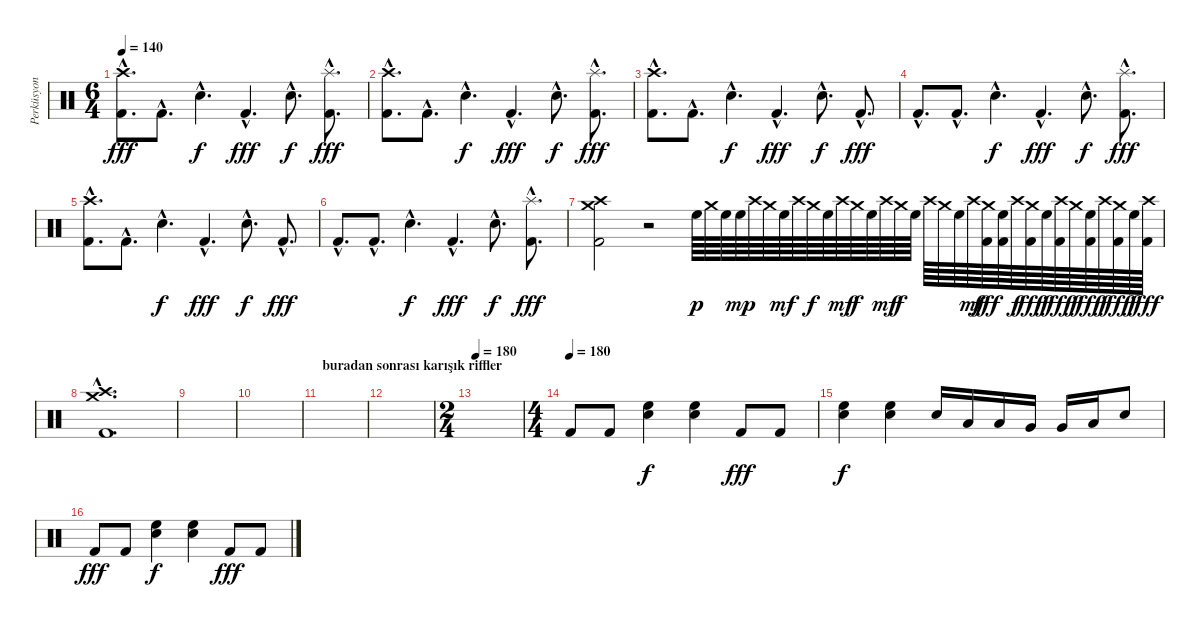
\track ("Perküsyon" "Perküsyon") {instrument percussion}
\staff {score}
\articulation defaults
\ts (6 4)
\tempo 140
\clef neutral
\ks c
("Crash high (hit)"{hac} "Kick (hit) 2"{hac}).8{d dy fff} "Kick (hit) 2"{hac}.8{d} "Snare (hit) 2"{hac}.4{d dy f} "Kick (hit) 2"{hac}.4{d dy fff} "Snare (hit) 2"{hac}.8{d dy f} ("Splash (hit)"{hac} "Kick (hit) 2"{hac}).8{d dy fff} |
("Crash high (hit)"{hac} "Kick (hit) 2"{hac}).8{d} "Kick (hit) 2"{hac}.8{d} "Snare (hit) 2"{hac}.4{d dy f} "Kick (hit) 2"{hac}.4{d dy fff} "Snare (hit) 2"{hac}.8{d dy f} ("Splash (hit)"{hac} "Kick (hit) 2"{hac}).8{d dy fff} |
("Crash high (hit)"{hac} "Kick (hit) 2"{hac}).8{d} "Kick (hit) 2"{hac}.8{d} "Snare (hit) 2"{hac}.4{d dy f} "Kick (hit) 2"{hac}.4{d dy fff} "Snare (hit) 2"{hac}.8{d dy f} "Kick (hit) 2"{hac}.8{d dy fff} |
"Kick (hit) 2"{hac}.8{d} "Kick (hit) 2"{hac}.8{d} "Snare (hit) 2"{hac}.4{d dy f} "Kick (hit) 2"{hac}.4{d dy fff} "Snare (hit) 2"{hac}.8{d dy f} ("Splash (hit)"{hac} "Kick (hit) 2"{hac}).8{d dy fff} |
("Crash high (hit)"{hac} "Kick (hit) 2"{hac}).8{d} "Kick (hit) 2"{hac}.8{d} "Snare (hit) 2"{hac}.4{d dy f} "Kick (hit) 2"{hac}.4{d dy fff} "Snare (hit) 2"{hac}.8{d dy f} "Kick (hit) 2"{hac}.8{d dy fff} |
"Kick (hit) 2"{hac}.8{d} "Kick (hit) 2"{hac}.8{d} "Snare (hit) 2"{hac}.4{d dy f} "Kick (hit) 2"{hac}.4{d dy fff} "Snare (hit) 2"{hac}.8{d dy f} ("Splash (hit)"{hac} "Kick (hit) 2"{hac}).8{d dy fff} |
("Crash high (hit)" "Crash medium (hit)" "Kick (hit) 2").2 r.2 "High Floor Tom (hit)".64{dy p} "Crash medium (hit)".64 "High Floor Tom (hit)".64 "High Floor Tom (hit)".64{dy mp} "Crash high (hit)".64 "Crash medium (hit)".64 "High Floor Tom (hit)".64{dy mf} "Crash high (hit)".64 "Crash medium (hit)".64{dy f} "High Floor Tom (hit)".64 "Crash high (hit)".64{dy mf} "Crash medium (hit)".64{dy f} "High Floor Tom (hit)".64 "Crash high (hit)".64{dy mf} "Crash medium (hit)".64{dy f} "High Floor Tom (hit)".64 "Crash high (hit)".64 "Crash medium (hit)".64 "High Floor Tom (hit)".64 "Crash high (hit)".64{dy mf} ("Crash medium (hit)" "Kick (hit) 2").64{dy fff} ("High Floor Tom (hit)" "Kick (hit) 2").64 "Crash high (hit)".64{dy f} ("Crash medium (hit)" "Kick (hit) 2").64{dy fff} "High Floor Tom (hit)".64{dy f} ("Crash high (hit)" "Kick (hit) 2").64{dy fff} "Crash medium (hit)".64{dy f} ("High Floor Tom (hit)" "Kick (hit) 2").64{dy fff} "Crash high (hit)".64{dy f} ("Crash medium (hit)" "Kick (hit) 2").64{dy fff} "High Floor Tom (hit)".64{dy f} ("Crash high (hit)" "Kick (hit) 2").64{dy fff} |
("Crash high (hit)"{hac} "Crash medium (hit)"{hac} "Kick (hit) 2"{hac}).1{d} |
|
|
\section ("" "buradan sonrası karışık riffler")
|
|
\ts (2 4)
\tempo 180
|
\ts (4 4)
\tempo (180)
"Kick (hit) 2".8 "Kick (hit) 2".8 ("High Floor Tom (hit)" "Electric Snare (hit)").4{dy f} ("High Floor Tom (hit)" "Electric Snare (hit)").4 "Kick (hit) 2".8{dy fff} "Kick (hit) 2".8 |
("High Floor Tom (hit)" "Electric Snare (hit)").4{dy f} ("High Floor Tom (hit)" "Electric Snare (hit)").4 "Electric Snare (hit)".16 "Low Tom (hit)".16 "Low Tom (hit)".16 "Very Low Tom (hit)".16 "Very Low Tom (hit)".16 "Low Floor Tom (hit)".16 "Electric Snare (hit)".8 |
"Kick (hit) 2".8{dy fff} "Kick (hit) 2".8 ("High Floor Tom (hit)" "Electric Snare (hit)").4{dy f} ("High Floor Tom (hit)" "Electric Snare (hit)").4 "Kick (hit) 2".8{dy fff} "Kick (hit) 2".8
